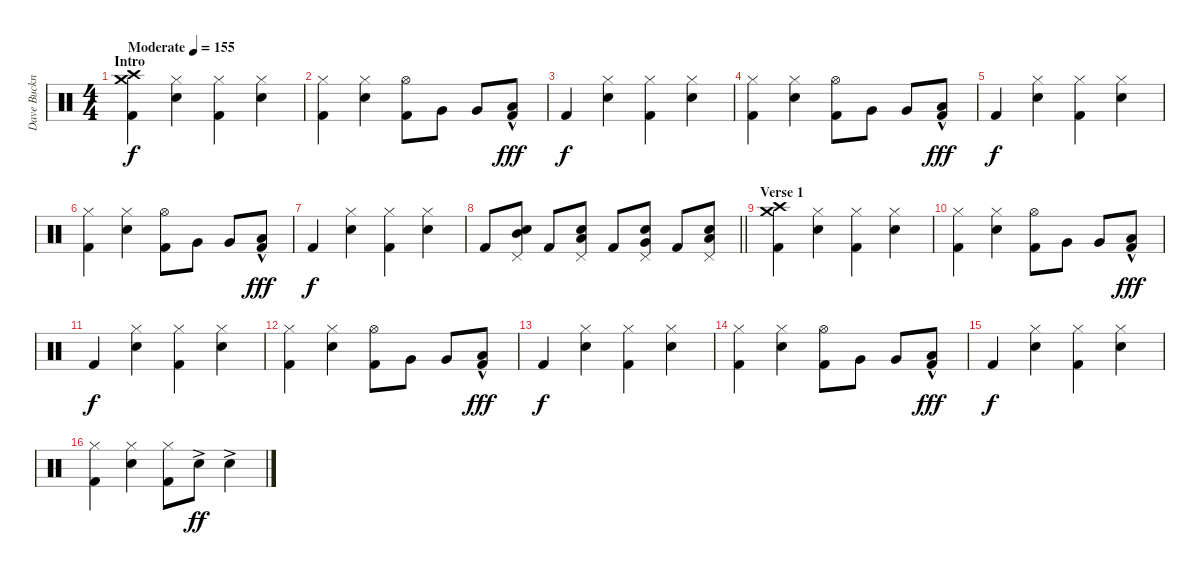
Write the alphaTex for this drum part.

\track ("Dave Buckner (Drums)" "Dave Buckn") {instrument percussion}
\staff {score}
\articulation defaults
\ts (4 4)
\section ("" "Intro")
\tempo (155 "Moderate")
\clef neutral
\ks c
("Crash medium (hit)" "Crash high (hit)" "Kick (hit) 2").4{dy f} ("Hi-Hat (closed)" "Electric Snare (hit)").4 ("Hi-Hat (closed)" "Kick (hit) 2").4 ("Hi-Hat (closed)" "Electric Snare (hit)").4 |
("Hi-Hat (closed)" "Kick (hit) 2").4 ("Hi-Hat (closed)" "Electric Snare (hit)").4 ("Hi-Hat (open)" "Kick (hit) 2").8 "Very Low Tom (hit)".8 "Very Low Tom (hit)".8 ("Low Floor Tom (hit)"{hac} "Kick (hit) 2").8{dy fff} |
"Kick (hit) 2".4{dy f} ("Hi-Hat (closed)" "Electric Snare (hit)").4 ("Hi-Hat (closed)" "Kick (hit) 2").4 ("Hi-Hat (closed)" "Electric Snare (hit)").4 |
("Hi-Hat (closed)" "Kick (hit) 2").4 ("Hi-Hat (closed)" "Electric Snare (hit)").4 ("Hi-Hat (open)" "Kick (hit) 2").8 "Very Low Tom (hit)".8 "Very Low Tom (hit)".8 ("Low Floor Tom (hit)"{hac} "Kick (hit) 2").8{dy fff} |
"Kick (hit) 2".4{dy f} ("Hi-Hat (closed)" "Electric Snare (hit)").4 ("Hi-Hat (closed)" "Kick (hit) 2").4 ("Hi-Hat (closed)" "Electric Snare (hit)").4 |
("Hi-Hat (closed)" "Kick (hit) 2").4 ("Hi-Hat (closed)" "Electric Snare (hit)").4 ("Hi-Hat (open)" "Kick (hit) 2").8 "Very Low Tom (hit)".8 "Very Low Tom (hit)".8 ("Low Floor Tom (hit)"{hac} "Kick (hit) 2").8{dy fff} |
"Kick (hit) 2".4{dy f} ("Hi-Hat (closed)" "Electric Snare (hit)").4 ("Hi-Hat (closed)" "Kick (hit) 2").4 ("Hi-Hat (closed)" "Electric Snare (hit)").4 |
\barLineRight lightlight "Kick (hit) 2".8
("Pedal Hi-Hat (hit)" "Electric Snare (hit)" "Mid Tom (hit)").8 "Kick (hit) 2".8 ("Pedal Hi-Hat (hit)" "Electric Snare (hit)" "Low Tom (hit)").8 "Kick (hit) 2".8 ("Pedal Hi-Hat (hit)" "Electric Snare (hit)" "Very Low Tom (hit)").8 "Kick (hit) 2".8 ("Pedal Hi-Hat (hit)" "Electric Snare (hit)" "Low Floor Tom (hit)").8 |
\section ("" "Verse 1")
("Crash medium (hit)" "Crash high (hit)" "Kick (hit) 2").4 ("Hi-Hat (closed)" "Electric Snare (hit)").4 ("Hi-Hat (closed)" "Kick (hit) 2").4 ("Hi-Hat (closed)" "Electric Snare (hit)").4 |
("Hi-Hat (closed)" "Kick (hit) 2").4 ("Hi-Hat (closed)" "Electric Snare (hit)").4 ("Hi-Hat (open)" "Kick (hit) 2").8 "Very Low Tom (hit)".8 "Very Low Tom (hit)".8 ("Low Floor Tom (hit)"{hac} "Kick (hit) 2").8{dy fff} |
"Kick (hit) 2".4{dy f} ("Hi-Hat (closed)" "Electric Snare (hit)").4 ("Hi-Hat (closed)" "Kick (hit) 2").4 ("Hi-Hat (closed)" "Electric Snare (hit)").4 |
("Hi-Hat (closed)" "Kick (hit) 2").4 ("Hi-Hat (closed)" "Electric Snare (hit)").4 ("Hi-Hat (open)" "Kick (hit) 2").8 "Very Low Tom (hit)".8 "Very Low Tom (hit)".8 ("Low Floor Tom (hit)"{hac} "Kick (hit) 2").8{dy fff} |
"Kick (hit) 2".4{dy f} ("Hi-Hat (closed)" "Electric Snare (hit)").4 ("Hi-Hat (closed)" "Kick (hit) 2").4 ("Hi-Hat (closed)" "Electric Snare (hit)").4 |
("Hi-Hat (closed)" "Kick (hit) 2").4 ("Hi-Hat (closed)" "Electric Snare (hit)").4 ("Hi-Hat (open)" "Kick (hit) 2").8 "Very Low Tom (hit)".8 "Very Low Tom (hit)".8 ("Low Floor Tom (hit)"{hac} "Kick (hit) 2").8{dy fff} |
"Kick (hit) 2".4{dy f} ("Hi-Hat (closed)" "Electric Snare (hit)").4 ("Hi-Hat (closed)" "Kick (hit) 2").4 ("Hi-Hat (closed)" "Electric Snare (hit)").4 |
("Hi-Hat (closed)" "Kick (hit) 2").4 ("Hi-Hat (closed)" "Electric Snare (hit)").4 ("Hi-Hat (closed)" "Kick (hit) 2").8 "Electric Snare (hit)"{ac}.8{dy ff} "Electric Snare (hit)"{ac}.4
